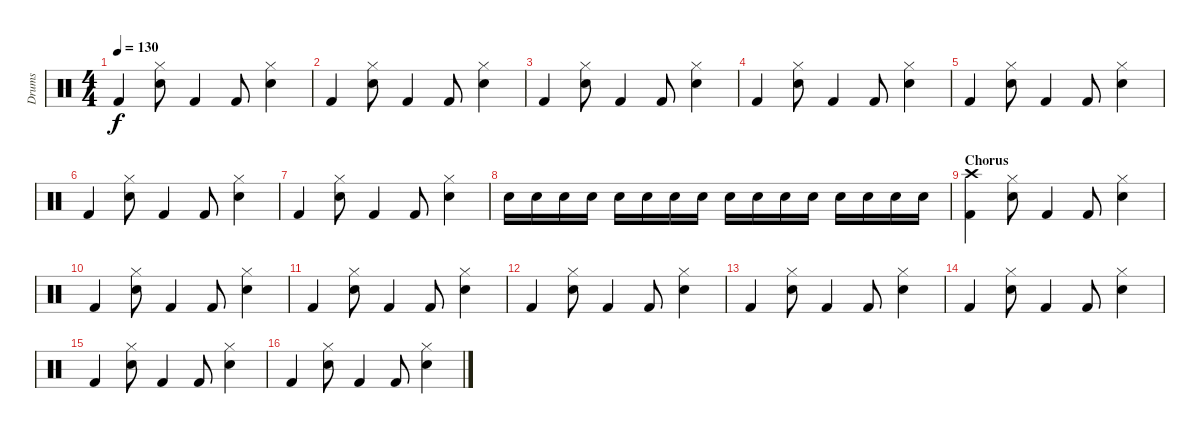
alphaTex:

\track ("Drums" "Drums") {instrument percussion}
\staff {score}
\articulation defaults
\ts (4 4)
\tempo 130
\clef neutral
\ks c "Kick (hit) 2".4{dy f}
("Hi-Hat (closed)" "Snare (hit) 2").8 "Kick (hit) 2".4 "Kick (hit) 2".8 ("Hi-Hat (closed)" "Snare (hit) 2").4 |
"Kick (hit) 2".4 ("Hi-Hat (closed)" "Snare (hit) 2").8 "Kick (hit) 2".4 "Kick (hit) 2".8 ("Hi-Hat (closed)" "Snare (hit) 2").4 |
"Kick (hit) 2".4 ("Hi-Hat (closed)" "Snare (hit) 2").8 "Kick (hit) 2".4 "Kick (hit) 2".8 ("Hi-Hat (closed)" "Snare (hit) 2").4 |
"Kick (hit) 2".4 ("Hi-Hat (closed)" "Snare (hit) 2").8 "Kick (hit) 2".4 "Kick (hit) 2".8 ("Hi-Hat (closed)" "Snare (hit) 2").4 |
"Kick (hit) 2".4 ("Hi-Hat (closed)" "Snare (hit) 2").8 "Kick (hit) 2".4 "Kick (hit) 2".8 ("Hi-Hat (closed)" "Snare (hit) 2").4 |
"Kick (hit) 2".4 ("Hi-Hat (closed)" "Snare (hit) 2").8 "Kick (hit) 2".4 "Kick (hit) 2".8 ("Hi-Hat (closed)" "Snare (hit) 2").4 |
"Kick (hit) 2".4 ("Hi-Hat (closed)" "Snare (hit) 2").8 "Kick (hit) 2".4 "Kick (hit) 2".8 ("Hi-Hat (closed)" "Snare (hit) 2").4 |
"Snare (hit) 2".16 "Snare (hit) 2".16 "Snare (hit) 2".16 "Snare (hit) 2".16 "Snare (hit) 2".16 "Snare (hit) 2".16 "Snare (hit) 2".16 "Snare (hit) 2".16 "Snare (hit) 2".16 "Snare (hit) 2".16 "Snare (hit) 2".16 "Snare (hit) 2".16 "Snare (hit) 2".16 "Snare (hit) 2".16 "Snare (hit) 2".16 "Snare (hit) 2".16 |
\section ("" "Chorus")
("Crash high (hit)" "Kick (hit) 2").4 ("Hi-Hat (closed)" "Snare (hit) 2").8 "Kick (hit) 2".4 "Kick (hit) 2".8 ("Hi-Hat (closed)" "Snare (hit) 2").4 |
"Kick (hit) 2".4 ("Hi-Hat (closed)" "Snare (hit) 2").8 "Kick (hit) 2".4 "Kick (hit) 2".8 ("Hi-Hat (closed)" "Snare (hit) 2").4 |
"Kick (hit) 2".4 ("Hi-Hat (closed)" "Snare (hit) 2").8 "Kick (hit) 2".4 "Kick (hit) 2".8 ("Hi-Hat (closed)" "Snare (hit) 2").4 |
"Kick (hit) 2".4 ("Hi-Hat (closed)" "Snare (hit) 2").8 "Kick (hit) 2".4 "Kick (hit) 2".8 ("Hi-Hat (closed)" "Snare (hit) 2").4 |
"Kick (hit) 2".4 ("Hi-Hat (closed)" "Snare (hit) 2").8 "Kick (hit) 2".4 "Kick (hit) 2".8 ("Hi-Hat (closed)" "Snare (hit) 2").4 |
"Kick (hit) 2".4 ("Hi-Hat (closed)" "Snare (hit) 2").8 "Kick (hit) 2".4 "Kick (hit) 2".8 ("Hi-Hat (closed)" "Snare (hit) 2").4 |
"Kick (hit) 2".4 ("Hi-Hat (closed)" "Snare (hit) 2").8 "Kick (hit) 2".4 "Kick (hit) 2".8 ("Hi-Hat (closed)" "Snare (hit) 2").4 |
"Kick (hit) 2".4 ("Hi-Hat (closed)" "Snare (hit) 2").8 "Kick (hit) 2".4 "Kick (hit) 2".8 ("Hi-Hat (closed)" "Snare (hit) 2").4
